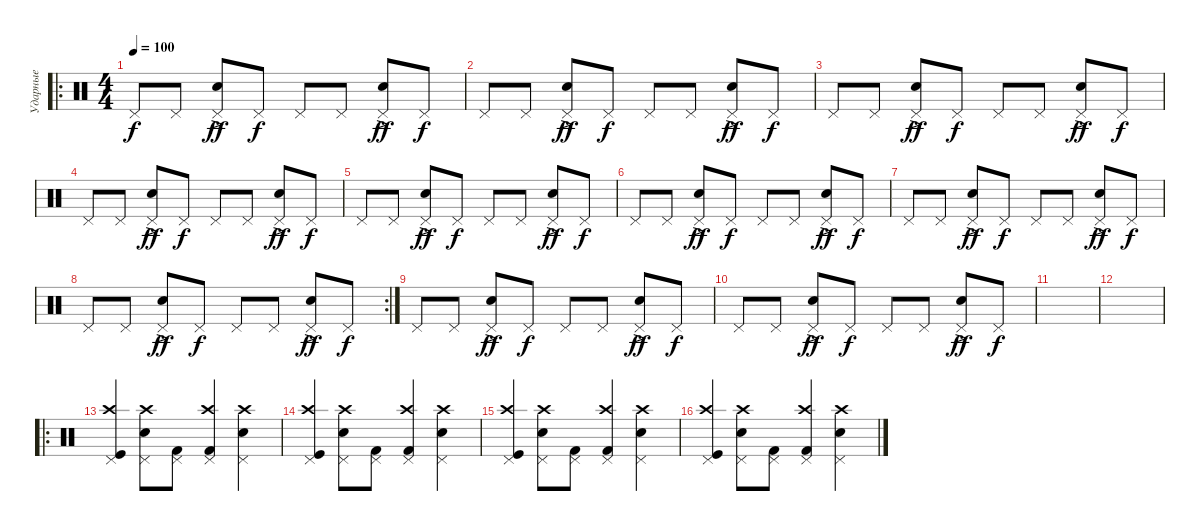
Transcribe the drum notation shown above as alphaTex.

\track ("Ударные" "Ударные") {instrument percussion}
\staff {score}
\articulation defaults
\ro
\ts (4 4)
\tempo 100
\clef neutral
\ks c "Pedal Hi-Hat (hit)".8{dy f} "Pedal Hi-Hat (hit)".8
("Pedal Hi-Hat (hit)"{ac} "Electric Snare (hit)").8{dy ff} "Pedal Hi-Hat (hit)".8{dy f} "Pedal Hi-Hat (hit)".8 "Pedal Hi-Hat (hit)".8 ("Pedal Hi-Hat (hit)"{ac} "Electric Snare (hit)").8{dy ff} "Pedal Hi-Hat (hit)".8{dy f} |
"Pedal Hi-Hat (hit)".8 "Pedal Hi-Hat (hit)".8 ("Pedal Hi-Hat (hit)"{ac} "Electric Snare (hit)").8{dy ff} "Pedal Hi-Hat (hit)".8{dy f} "Pedal Hi-Hat (hit)".8 "Pedal Hi-Hat (hit)".8 ("Pedal Hi-Hat (hit)"{ac} "Electric Snare (hit)").8{dy ff} "Pedal Hi-Hat (hit)".8{dy f} |
"Pedal Hi-Hat (hit)".8 "Pedal Hi-Hat (hit)".8 ("Pedal Hi-Hat (hit)"{ac} "Electric Snare (hit)").8{dy ff} "Pedal Hi-Hat (hit)".8{dy f} "Pedal Hi-Hat (hit)".8 "Pedal Hi-Hat (hit)".8 ("Pedal Hi-Hat (hit)"{ac} "Electric Snare (hit)").8{dy ff} "Pedal Hi-Hat (hit)".8{dy f} |
"Pedal Hi-Hat (hit)".8 "Pedal Hi-Hat (hit)".8 ("Pedal Hi-Hat (hit)"{ac} "Electric Snare (hit)").8{dy ff} "Pedal Hi-Hat (hit)".8{dy f} "Pedal Hi-Hat (hit)".8 "Pedal Hi-Hat (hit)".8 ("Pedal Hi-Hat (hit)"{ac} "Electric Snare (hit)").8{dy ff} "Pedal Hi-Hat (hit)".8{dy f} |
"Pedal Hi-Hat (hit)".8 "Pedal Hi-Hat (hit)".8 ("Pedal Hi-Hat (hit)"{ac} "Electric Snare (hit)").8{dy ff} "Pedal Hi-Hat (hit)".8{dy f} "Pedal Hi-Hat (hit)".8 "Pedal Hi-Hat (hit)".8 ("Pedal Hi-Hat (hit)"{ac} "Electric Snare (hit)").8{dy ff} "Pedal Hi-Hat (hit)".8{dy f} |
"Pedal Hi-Hat (hit)".8 "Pedal Hi-Hat (hit)".8 ("Pedal Hi-Hat (hit)"{ac} "Electric Snare (hit)").8{dy ff} "Pedal Hi-Hat (hit)".8{dy f} "Pedal Hi-Hat (hit)".8 "Pedal Hi-Hat (hit)".8 ("Pedal Hi-Hat (hit)"{ac} "Electric Snare (hit)").8{dy ff} "Pedal Hi-Hat (hit)".8{dy f} |
"Pedal Hi-Hat (hit)".8 "Pedal Hi-Hat (hit)".8 ("Pedal Hi-Hat (hit)"{ac} "Electric Snare (hit)").8{dy ff} "Pedal Hi-Hat (hit)".8{dy f} "Pedal Hi-Hat (hit)".8 "Pedal Hi-Hat (hit)".8 ("Pedal Hi-Hat (hit)"{ac} "Electric Snare (hit)").8{dy ff} "Pedal Hi-Hat (hit)".8{dy f} |
\rc 2 "Pedal Hi-Hat (hit)".8 "Pedal Hi-Hat (hit)".8
("Pedal Hi-Hat (hit)"{ac} "Electric Snare (hit)").8{dy ff} "Pedal Hi-Hat (hit)".8{dy f} "Pedal Hi-Hat (hit)".8 "Pedal Hi-Hat (hit)".8 ("Pedal Hi-Hat (hit)"{ac} "Electric Snare (hit)").8{dy ff} "Pedal Hi-Hat (hit)".8{dy f} |
"Pedal Hi-Hat (hit)".8 "Pedal Hi-Hat (hit)".8 ("Pedal Hi-Hat (hit)"{ac} "Electric Snare (hit)").8{dy ff} "Pedal Hi-Hat (hit)".8{dy f} "Pedal Hi-Hat (hit)".8 "Pedal Hi-Hat (hit)".8 ("Pedal Hi-Hat (hit)"{ac} "Electric Snare (hit)").8{dy ff} "Pedal Hi-Hat (hit)".8{dy f} |
"Pedal Hi-Hat (hit)".8 "Pedal Hi-Hat (hit)".8 ("Pedal Hi-Hat (hit)"{ac} "Electric Snare (hit)").8{dy ff} "Pedal Hi-Hat (hit)".8{dy f} "Pedal Hi-Hat (hit)".8 "Pedal Hi-Hat (hit)".8 ("Pedal Hi-Hat (hit)"{ac} "Electric Snare (hit)").8{dy ff} "Pedal Hi-Hat (hit)".8{dy f} |
|
|
\ro
("Crash high (hit)" "Pedal Hi-Hat (hit)" "Kick (hit)").4 ("Crash high (hit)" "Pedal Hi-Hat (hit)" "Electric Snare (hit)").8 ("Pedal Hi-Hat (hit)" "Kick (hit) 2").8 ("Crash high (hit)" "Pedal Hi-Hat (hit)" "Kick (hit) 2").4 ("Crash high (hit)" "Pedal Hi-Hat (hit)" "Electric Snare (hit)").4 |
("Crash high (hit)" "Pedal Hi-Hat (hit)" "Kick (hit)").4 ("Crash high (hit)" "Pedal Hi-Hat (hit)" "Electric Snare (hit)").8 ("Pedal Hi-Hat (hit)" "Kick (hit) 2").8 ("Crash high (hit)" "Pedal Hi-Hat (hit)" "Kick (hit) 2").4 ("Crash high (hit)" "Pedal Hi-Hat (hit)" "Electric Snare (hit)").4 |
("Crash high (hit)" "Pedal Hi-Hat (hit)" "Kick (hit)").4 ("Crash high (hit)" "Pedal Hi-Hat (hit)" "Electric Snare (hit)").8 ("Pedal Hi-Hat (hit)" "Kick (hit) 2").8 ("Crash high (hit)" "Pedal Hi-Hat (hit)" "Kick (hit) 2").4 ("Crash high (hit)" "Pedal Hi-Hat (hit)" "Electric Snare (hit)").4 |
("Crash high (hit)" "Pedal Hi-Hat (hit)" "Kick (hit)").4 ("Crash high (hit)" "Pedal Hi-Hat (hit)" "Electric Snare (hit)").8 ("Pedal Hi-Hat (hit)" "Kick (hit) 2").8 ("Crash high (hit)" "Pedal Hi-Hat (hit)" "Kick (hit) 2").4 ("Crash high (hit)" "Pedal Hi-Hat (hit)" "Electric Snare (hit)").4
